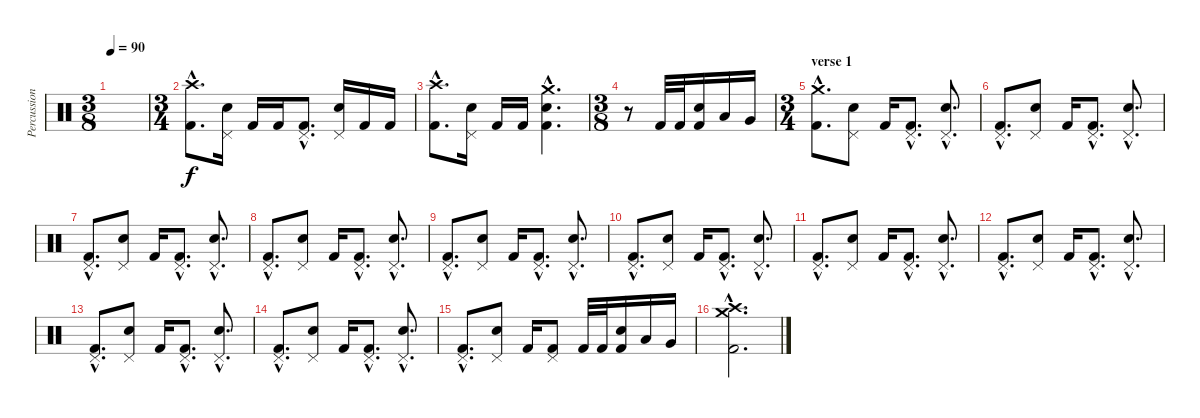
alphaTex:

\track ("Percussion" "Percussion") {instrument percussion}
\staff {score}
\articulation defaults
\ts (3 8)
\tempo 90
\clef neutral
\ks c
|
\ts (3 4)
("Kick (hit) 2"{hac} "Crash high (hit)"{hac}).8{d} ("Electric Snare (hit)" "Pedal Hi-Hat (hit)").16 "Kick (hit) 2".16 "Kick (hit) 2".16 ("Kick (hit) 2"{hac} "Pedal Hi-Hat (hit)"{hac}).8{d} ("Electric Snare (hit)" "Pedal Hi-Hat (hit)").16 "Kick (hit) 2".16 "Kick (hit) 2".16 |
("Kick (hit) 2"{hac} "Crash high (hit)"{hac}).8{d} ("Electric Snare (hit)" "Pedal Hi-Hat (hit)").16 "Kick (hit) 2".16 "Kick (hit) 2".16 ("Kick (hit) 2"{hac} "Electric Snare (hit)"{hac} "Crash medium (hit)"{hac}).4{d} |
\ts (3 8)
r.8 "Kick (hit) 2".32 "Kick (hit) 2".32 ("Kick (hit) 2" "Electric Snare (hit)").16 "Low Tom (hit)".16 "Very Low Tom (hit)".16 |
\ts (3 4)
\section ("" "verse 1")
("Kick (hit) 2"{hac} "Crash medium (hit)"{hac}).8{d} ("Electric Snare (hit)" "Pedal Hi-Hat (hit)").8 "Kick (hit) 2".16 ("Kick (hit) 2"{hac} "Pedal Hi-Hat (hit)"{hac}).8{d} ("Electric Snare (hit)"{hac} "Pedal Hi-Hat (hit)"{hac}).8{d} |
("Kick (hit) 2"{hac} "Pedal Hi-Hat (hit)"{hac}).8{d} ("Electric Snare (hit)" "Pedal Hi-Hat (hit)").8 "Kick (hit) 2".16 ("Kick (hit) 2"{hac} "Pedal Hi-Hat (hit)"{hac}).8{d} ("Electric Snare (hit)"{hac} "Pedal Hi-Hat (hit)"{hac}).8{d} |
("Kick (hit) 2"{hac} "Pedal Hi-Hat (hit)"{hac}).8{d} ("Electric Snare (hit)" "Pedal Hi-Hat (hit)").8 "Kick (hit) 2".16 ("Kick (hit) 2"{hac} "Pedal Hi-Hat (hit)"{hac}).8{d} ("Electric Snare (hit)"{hac} "Pedal Hi-Hat (hit)"{hac}).8{d} |
("Kick (hit) 2"{hac} "Pedal Hi-Hat (hit)"{hac}).8{d} ("Electric Snare (hit)" "Pedal Hi-Hat (hit)").8 "Kick (hit) 2".16 ("Kick (hit) 2"{hac} "Pedal Hi-Hat (hit)"{hac}).8{d} ("Electric Snare (hit)"{hac} "Pedal Hi-Hat (hit)"{hac}).8{d} |
("Kick (hit) 2"{hac} "Pedal Hi-Hat (hit)"{hac}).8{d} ("Electric Snare (hit)" "Pedal Hi-Hat (hit)").8 "Kick (hit) 2".16 ("Kick (hit) 2"{hac} "Pedal Hi-Hat (hit)"{hac}).8{d} ("Electric Snare (hit)"{hac} "Pedal Hi-Hat (hit)"{hac}).8{d} |
("Kick (hit) 2"{hac} "Pedal Hi-Hat (hit)"{hac}).8{d} ("Electric Snare (hit)" "Pedal Hi-Hat (hit)").8 "Kick (hit) 2".16 ("Kick (hit) 2"{hac} "Pedal Hi-Hat (hit)"{hac}).8{d} ("Electric Snare (hit)"{hac} "Pedal Hi-Hat (hit)"{hac}).8{d} |
("Kick (hit) 2"{hac} "Pedal Hi-Hat (hit)"{hac}).8{d} ("Electric Snare (hit)" "Pedal Hi-Hat (hit)").8 "Kick (hit) 2".16 ("Kick (hit) 2"{hac} "Pedal Hi-Hat (hit)"{hac}).8{d} ("Electric Snare (hit)"{hac} "Pedal Hi-Hat (hit)"{hac}).8{d} |
("Kick (hit) 2"{hac} "Pedal Hi-Hat (hit)"{hac}).8{d} ("Electric Snare (hit)" "Pedal Hi-Hat (hit)").8 "Kick (hit) 2".16 ("Kick (hit) 2"{hac} "Pedal Hi-Hat (hit)"{hac}).8{d} ("Electric Snare (hit)"{hac} "Pedal Hi-Hat (hit)"{hac}).8{d} |
("Kick (hit) 2"{hac} "Pedal Hi-Hat (hit)"{hac}).8{d} ("Electric Snare (hit)" "Pedal Hi-Hat (hit)").8 "Kick (hit) 2".16 ("Kick (hit) 2"{hac} "Pedal Hi-Hat (hit)"{hac}).8{d} ("Electric Snare (hit)"{hac} "Pedal Hi-Hat (hit)"{hac}).8{d} |
("Kick (hit) 2"{hac} "Pedal Hi-Hat (hit)"{hac}).8{d} ("Electric Snare (hit)" "Pedal Hi-Hat (hit)").8 "Kick (hit) 2".16 ("Kick (hit) 2"{hac} "Pedal Hi-Hat (hit)"{hac}).8{d} ("Electric Snare (hit)"{hac} "Pedal Hi-Hat (hit)"{hac}).8{d} |
("Kick (hit) 2"{hac} "Pedal Hi-Hat (hit)"{hac}).8{d} ("Electric Snare (hit)" "Pedal Hi-Hat (hit)").8 "Kick (hit) 2".16 ("Kick (hit) 2" "Pedal Hi-Hat (hit)").8 "Kick (hit) 2".32 "Kick (hit) 2".32 ("Kick (hit) 2" "Electric Snare (hit)").16 "Low Tom (hit)".16 "Very Low Tom (hit)".16 |
("Kick (hit) 2"{hac} "Crash high (hit)"{hac} "Crash medium (hit)"{hac}).2{d}
